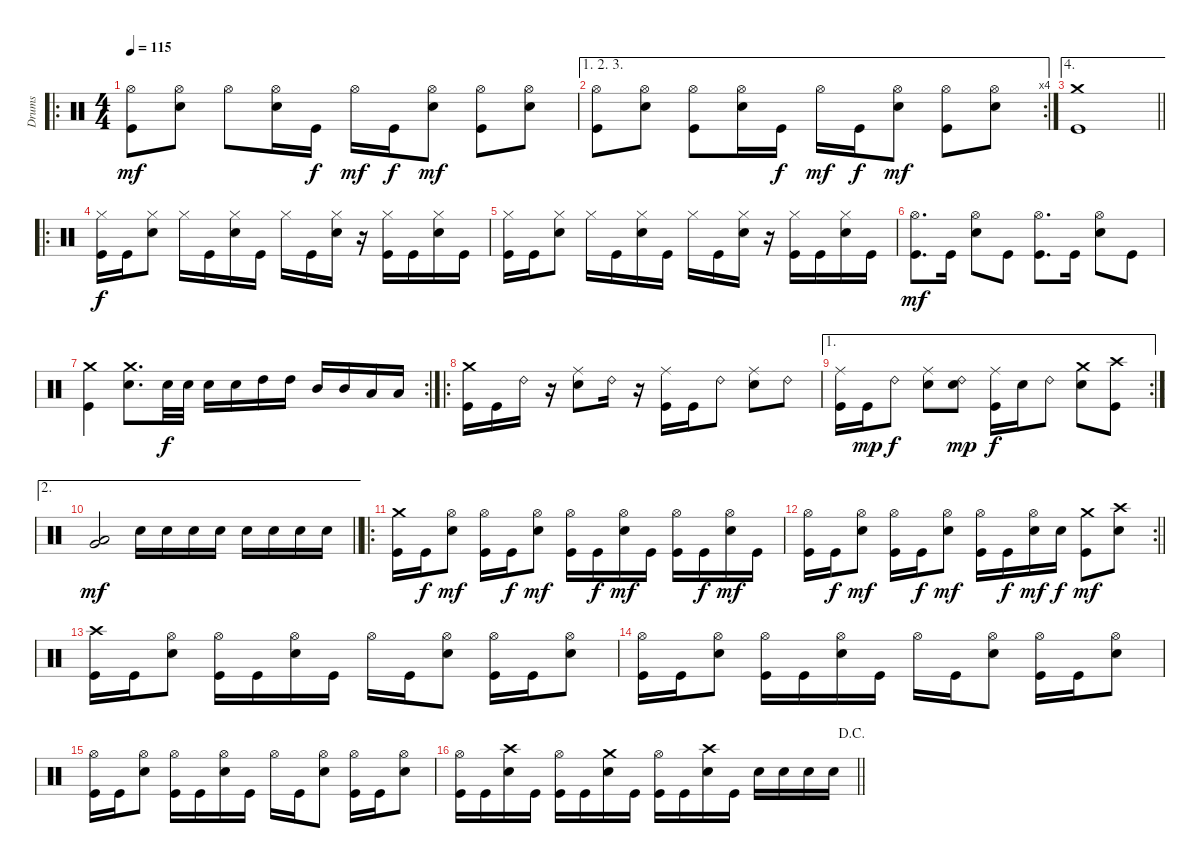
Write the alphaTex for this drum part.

\bracketExtendMode groupsimilarinstruments
\otherSystemsTrackNameOrientation horizontal
\track ("Drumkit" "Drums") {instrument percussion}
\staff {score}
\articulation defaults
\ro
\ts (4 4)
\beaming (8 2 2 2 2)
\tempo 115
\clef neutral
\ks c
("Hi-Hat (open)" "Kick (hit)").8{dy mf} ("Hi-Hat (open)" "Snare (hit) 2").8 "Hi-Hat (open)".8 ("Hi-Hat (open)" "Snare (hit) 2").16 "Kick (hit)".16{dy f} "Hi-Hat (open)".16{dy mf} "Kick (hit)".16{dy f} ("Hi-Hat (open)" "Snare (hit) 2").8{dy mf} ("Hi-Hat (open)" "Kick (hit)").8 ("Hi-Hat (open)" "Snare (hit) 2").8 |
\ae (1 2 3)
\rc 4
("Hi-Hat (open)" "Kick (hit)").8 ("Hi-Hat (open)" "Snare (hit) 2").8 ("Hi-Hat (open)" "Kick (hit)").8 ("Hi-Hat (open)" "Snare (hit) 2").16 "Kick (hit)".16{dy f} "Hi-Hat (open)".16{dy mf} "Kick (hit)".16{dy f} ("Hi-Hat (open)" "Snare (hit) 2").8{dy mf} ("Hi-Hat (open)" "Kick (hit)").8 ("Hi-Hat (open)" "Snare (hit) 2").8 |
\ae 4
\barLineRight lightlight
("Crash medium (hit)" "Kick (hit)").1 |
\ro
("Hi-Hat (closed)" "Kick (hit)").16{dy f} "Kick (hit)".16 ("Hi-Hat (closed)" "Snare (hit) 2").8 "Hi-Hat (closed)".16 "Kick (hit)".16 ("Hi-Hat (closed)" "Snare (hit) 2").16 "Kick (hit)".16 "Hi-Hat (closed)".16 "Kick (hit)".16 ("Hi-Hat (closed)" "Snare (hit) 2").16 r.16 ("Hi-Hat (closed)" "Kick (hit)").16 "Kick (hit)".16 ("Hi-Hat (closed)" "Snare (hit) 2").16 "Kick (hit)".16 |
("Hi-Hat (closed)" "Kick (hit)").16 "Kick (hit)".16 ("Hi-Hat (closed)" "Snare (hit) 2").8 "Hi-Hat (closed)".16 "Kick (hit)".16 ("Hi-Hat (closed)" "Snare (hit) 2").16 "Kick (hit)".16 "Hi-Hat (closed)".16 "Kick (hit)".16 ("Hi-Hat (closed)" "Snare (hit) 2").16 r.16 ("Hi-Hat (closed)" "Kick (hit)").16 "Kick (hit)".16 ("Hi-Hat (closed)" "Snare (hit) 2").16 "Kick (hit)".16 |
("Kick (hit)" "Hi-Hat (open)").8{d dy mf} "Kick (hit)".16 ("Snare (hit) 2" "Hi-Hat (open)").8 "Kick (hit)".8 ("Hi-Hat (open)" "Kick (hit)").8{d} "Kick (hit)".16 ("Snare (hit) 2" "Hi-Hat (open)").8 "Kick (hit)".8 |
\rc 2
("Crash medium (hit)" "Kick (hit)").4 ("Crash medium (hit)" "Snare (hit) 2").8{d} "Snare (hit) 2".32{dy f} "Snare (hit) 2".32 "Snare (hit) 2".16 "Snare (hit) 2".16 "High Tom (hit)".16 "High Tom (hit)".16 "Mid Tom (hit)".16 "Mid Tom (hit)".16 "Low Tom (hit)".16 "Low Tom (hit)".16 |
\ro
("Crash medium (hit)" "Kick (hit)").16 "Kick (hit)".16 "Ride (bell) 2".16 r.16 ("Ride (middle)" "Snare (hit) 2").8 "Ride (bell) 2".16 r.16 ("Ride (middle)" "Kick (hit)").16 "Kick (hit)".16 "Ride (bell) 2".8 ("Ride (middle)" "Snare (hit) 2").8 "Ride (bell) 2".8 |
\ae 1
\rc 2
("Kick (hit)" "Ride (middle)").16 "Kick (hit)".16{dy mp} "Ride (bell) 2".8{dy f} ("Snare (hit) 2" "Ride (middle)").8 ("Ride (bell) 2" "Snare (hit) 2").8{dy mp} ("Kick (hit)" "Ride (middle)").16{dy f} "Snare (hit) 2".16 "Ride (bell) 2".8 ("Snare (hit) 2" "Crash medium (hit)").8 ("Crash high (hit)" "Kick (hit)").8 |
\ae 2
\barLineRight lightlight
("Very Low Tom (hit)" "Low Tom (hit)").2{dy mf} "Snare (hit) 2".16 "Snare (hit) 2".16 "Snare (hit) 2".16 "Snare (hit) 2".16 "Snare (hit) 2".16 "Snare (hit) 2".16 "Snare (hit) 2".16 "Snare (hit) 2".16 |
\ro
("Crash medium (hit)" "Kick (hit)").16 "Kick (hit)".16{dy f} ("Hi-Hat (open)" "Snare (hit) 2").8{dy mf} ("Hi-Hat (open)" "Kick (hit)").16 "Kick (hit)".16{dy f} ("Hi-Hat (open)" "Snare (hit) 2").8{dy mf} ("Hi-Hat (open)" "Kick (hit)").16 "Kick (hit)".16{dy f} ("Hi-Hat (open)" "Snare (hit) 2").16{dy mf} "Kick (hit)".16 ("Hi-Hat (open)" "Kick (hit)").16 "Kick (hit)".16{dy f} ("Hi-Hat (open)" "Snare (hit) 2").16{dy mf} "Kick (hit)".16 |
\rc 2
\barLineRight lightlight
("Hi-Hat (open)" "Kick (hit)").16 "Kick (hit)".16{dy f} ("Hi-Hat (open)" "Snare (hit) 2").8{dy mf} ("Hi-Hat (open)" "Kick (hit)").16 "Kick (hit)".16{dy f} ("Hi-Hat (open)" "Snare (hit) 2").8{dy mf} ("Hi-Hat (open)" "Kick (hit)").16 "Kick (hit)".16{dy f} ("Hi-Hat (open)" "Snare (hit) 2").16{dy mf} "Snare (hit) 2".16{dy f} ("Crash medium (hit)" "Kick (hit)").8{dy mf} ("Crash high (hit)" "Snare (hit) 2").8 |
("Crash high (hit)" "Kick (hit)").16 "Kick (hit)".16 ("Hi-Hat (open)" "Snare (hit) 2").8 ("Hi-Hat (open)" "Kick (hit)").16 "Kick (hit)".16 ("Hi-Hat (open)" "Snare (hit) 2").16 "Kick (hit)".16 "Hi-Hat (open)".16 "Kick (hit)".16 ("Hi-Hat (open)" "Snare (hit) 2").8 ("Hi-Hat (open)" "Kick (hit)").16 "Kick (hit)".16 ("Hi-Hat (open)" "Snare (hit) 2").8 |
("Hi-Hat (open)" "Kick (hit)").16 "Kick (hit)".16 ("Hi-Hat (open)" "Snare (hit) 2").8 ("Hi-Hat (open)" "Kick (hit)").16 "Kick (hit)".16 ("Hi-Hat (open)" "Snare (hit) 2").16 "Kick (hit)".16 "Hi-Hat (open)".16 "Kick (hit)".16 ("Hi-Hat (open)" "Snare (hit) 2").8 ("Hi-Hat (open)" "Kick (hit)").16 "Kick (hit)".16 ("Hi-Hat (open)" "Snare (hit) 2").8 |
("Hi-Hat (open)" "Kick (hit)").16 "Kick (hit)".16 ("Hi-Hat (open)" "Snare (hit) 2").8 ("Hi-Hat (open)" "Kick (hit)").16 "Kick (hit)".16 ("Hi-Hat (open)" "Snare (hit) 2").16 "Kick (hit)".16 "Hi-Hat (open)".16 "Kick (hit)".16 ("Hi-Hat (open)" "Snare (hit) 2").8 ("Hi-Hat (open)" "Kick (hit)").16 "Kick (hit)".16 ("Hi-Hat (open)" "Snare (hit) 2").8 |
\jump dacapo
\barLineRight lightlight
("Hi-Hat (open)" "Kick (hit)").16 "Kick (hit)".16 ("Crash high (hit)" "Snare (hit) 2").16 "Kick (hit)".16 ("Hi-Hat (open)" "Kick (hit)").16 "Kick (hit)".16 ("Crash medium (hit)" "Snare (hit) 2").16 "Kick (hit)".16 ("Hi-Hat (open)" "Kick (hit)").16 "Kick (hit)".16 ("Crash high (hit)" "Snare (hit) 2").16 "Kick (hit)".16 "Snare (hit) 2".16 "Snare (hit) 2".16 "Snare (hit) 2".16 "Snare (hit) 2".16
